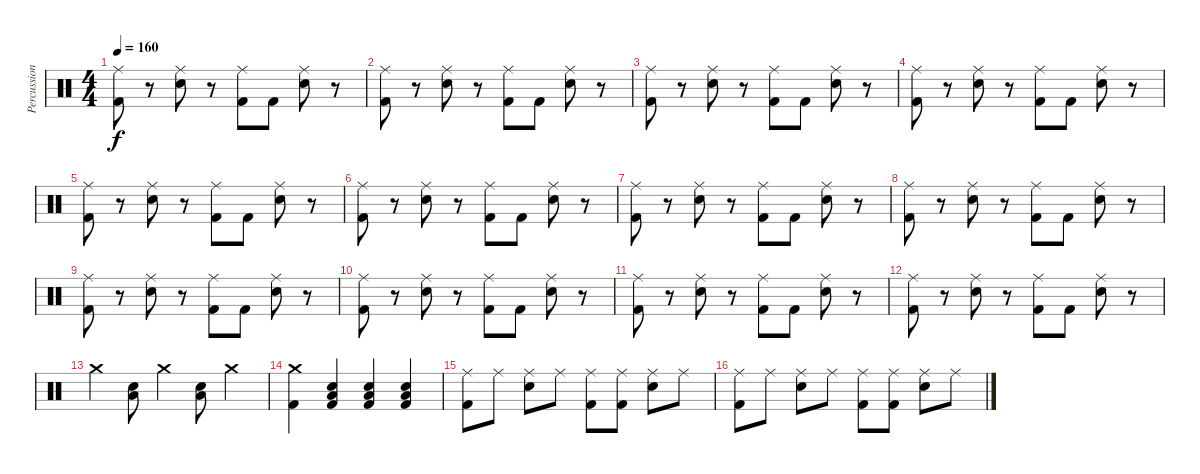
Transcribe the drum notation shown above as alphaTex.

\track ("Percussion" "Percussion") {instrument percussion}
\staff {score}
\articulation defaults
\ts (4 4)
\tempo 160
\clef neutral
\ks c
("Ride (middle)" "Kick (hit) 2").8{dy f} r.8 ("Ride (middle)" "Electric Snare (hit)").8 r.8 ("Ride (middle)" "Kick (hit) 2").8 "Kick (hit) 2".8 ("Ride (middle)" "Electric Snare (hit)").8 r.8 |
("Ride (middle)" "Kick (hit) 2").8 r.8 ("Ride (middle)" "Electric Snare (hit)").8 r.8 ("Ride (middle)" "Kick (hit) 2").8 "Kick (hit) 2".8 ("Ride (middle)" "Electric Snare (hit)").8 r.8 |
("Ride (middle)" "Kick (hit) 2").8 r.8 ("Ride (middle)" "Electric Snare (hit)").8 r.8 ("Ride (middle)" "Kick (hit) 2").8 "Kick (hit) 2".8 ("Ride (middle)" "Electric Snare (hit)").8 r.8 |
("Ride (middle)" "Kick (hit) 2").8 r.8 ("Ride (middle)" "Electric Snare (hit)").8 r.8 ("Ride (middle)" "Kick (hit) 2").8 "Kick (hit) 2".8 ("Ride (middle)" "Electric Snare (hit)").8 r.8 |
("Ride (middle)" "Kick (hit) 2").8 r.8 ("Ride (middle)" "Electric Snare (hit)").8 r.8 ("Ride (middle)" "Kick (hit) 2").8 "Kick (hit) 2".8 ("Ride (middle)" "Electric Snare (hit)").8 r.8 |
("Ride (middle)" "Kick (hit) 2").8 r.8 ("Ride (middle)" "Electric Snare (hit)").8 r.8 ("Ride (middle)" "Kick (hit) 2").8 "Kick (hit) 2".8 ("Ride (middle)" "Electric Snare (hit)").8 r.8 |
("Ride (middle)" "Kick (hit) 2").8 r.8 ("Ride (middle)" "Electric Snare (hit)").8 r.8 ("Ride (middle)" "Kick (hit) 2").8 "Kick (hit) 2".8 ("Ride (middle)" "Electric Snare (hit)").8 r.8 |
("Ride (middle)" "Kick (hit) 2").8 r.8 ("Ride (middle)" "Electric Snare (hit)").8 r.8 ("Ride (middle)" "Kick (hit) 2").8 "Kick (hit) 2".8 ("Ride (middle)" "Electric Snare (hit)").8 r.8 |
("Ride (middle)" "Kick (hit) 2").8 r.8 ("Ride (middle)" "Electric Snare (hit)").8 r.8 ("Ride (middle)" "Kick (hit) 2").8 "Kick (hit) 2".8 ("Ride (middle)" "Electric Snare (hit)").8 r.8 |
("Ride (middle)" "Kick (hit) 2").8 r.8 ("Ride (middle)" "Electric Snare (hit)").8 r.8 ("Ride (middle)" "Kick (hit) 2").8 "Kick (hit) 2".8 ("Ride (middle)" "Electric Snare (hit)").8 r.8 |
("Ride (middle)" "Kick (hit) 2").8 r.8 ("Ride (middle)" "Electric Snare (hit)").8 r.8 ("Ride (middle)" "Kick (hit) 2").8 "Kick (hit) 2".8 ("Ride (middle)" "Electric Snare (hit)").8 r.8 |
("Ride (middle)" "Kick (hit) 2").8 r.8 ("Ride (middle)" "Electric Snare (hit)").8 r.8 ("Ride (middle)" "Kick (hit) 2").8 "Kick (hit) 2".8 ("Ride (middle)" "Electric Snare (hit)").8 r.8 |
"Crash medium (hit)".4 ("Low Floor Tom (hit)" "Electric Snare (hit)").8 "Crash medium (hit)".4 ("Low Floor Tom (hit)" "Electric Snare (hit)").8 "Crash medium (hit)".4 |
("Crash medium (hit)" "Kick (hit) 2").4 ("Low Floor Tom (hit)" "Electric Snare (hit)" "Kick (hit) 2").4 ("Low Floor Tom (hit)" "Electric Snare (hit)" "Kick (hit) 2").4 ("Low Floor Tom (hit)" "Electric Snare (hit)" "Kick (hit) 2").4 |
("Ride (middle)" "Kick (hit) 2").8 "Ride (middle)".8 ("Ride (middle)" "Electric Snare (hit)").8 "Ride (middle)".8 ("Ride (middle)" "Kick (hit) 2").8 ("Ride (middle)" "Kick (hit) 2").8 ("Ride (middle)" "Electric Snare (hit)").8 "Ride (middle)".8 |
("Ride (middle)" "Kick (hit) 2").8 "Ride (middle)".8 ("Ride (middle)" "Electric Snare (hit)").8 "Ride (middle)".8 ("Ride (middle)" "Kick (hit) 2").8 ("Ride (middle)" "Kick (hit) 2").8 ("Ride (middle)" "Electric Snare (hit)").8 "Ride (middle)".8
